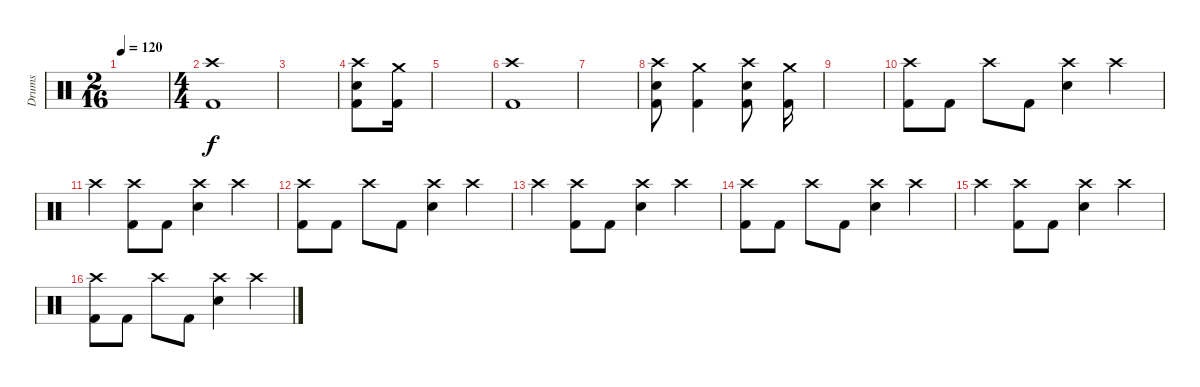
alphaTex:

\track ("Drums" "Drums") {instrument percussion}
\staff {score}
\articulation defaults
\ts (2 16)
\tempo 120
\clef neutral
\ks c
|
\ts (4 4)
("Crash high (hit)" "Kick (hit) 2").1 |
|
("Crash high (hit)" "Snare (hit) 2" "Kick (hit) 2").8 ("Crash medium (hit)" "Kick (hit) 2").16 |
|
("Crash high (hit)" "Kick (hit) 2").1 |
|
("Crash high (hit)" "Snare (hit) 2" "Kick (hit) 2").8 ("Crash medium (hit)" "Kick (hit) 2").4 ("Crash high (hit)" "Snare (hit) 2" "Kick (hit) 2").8 ("Crash medium (hit)" "Kick (hit) 2").16 |
|
("Crash high (hit)" "Kick (hit) 2").8 "Kick (hit) 2".8 "Crash high (hit)".8 "Kick (hit) 2".8 ("Crash high (hit)" "Snare (hit) 2").4 "Crash high (hit)".4 |
"Crash high (hit)".4 ("Crash high (hit)" "Kick (hit) 2").8 "Kick (hit) 2".8 ("Crash high (hit)" "Snare (hit) 2").4 "Crash high (hit)".4 |
("Crash high (hit)" "Kick (hit) 2").8 "Kick (hit) 2".8 "Crash high (hit)".8 "Kick (hit) 2".8 ("Crash high (hit)" "Snare (hit) 2").4 "Crash high (hit)".4 |
"Crash high (hit)".4 ("Crash high (hit)" "Kick (hit) 2").8 "Kick (hit) 2".8 ("Crash high (hit)" "Snare (hit) 2").4 "Crash high (hit)".4 |
("Crash high (hit)" "Kick (hit) 2").8 "Kick (hit) 2".8 "Crash high (hit)".8 "Kick (hit) 2".8 ("Crash high (hit)" "Snare (hit) 2").4 "Crash high (hit)".4 |
"Crash high (hit)".4 ("Crash high (hit)" "Kick (hit) 2").8 "Kick (hit) 2".8 ("Crash high (hit)" "Snare (hit) 2").4 "Crash high (hit)".4 |
("Crash high (hit)" "Kick (hit) 2").8 "Kick (hit) 2".8 "Crash high (hit)".8 "Kick (hit) 2".8 ("Crash high (hit)" "Snare (hit) 2").4 "Crash high (hit)".4
